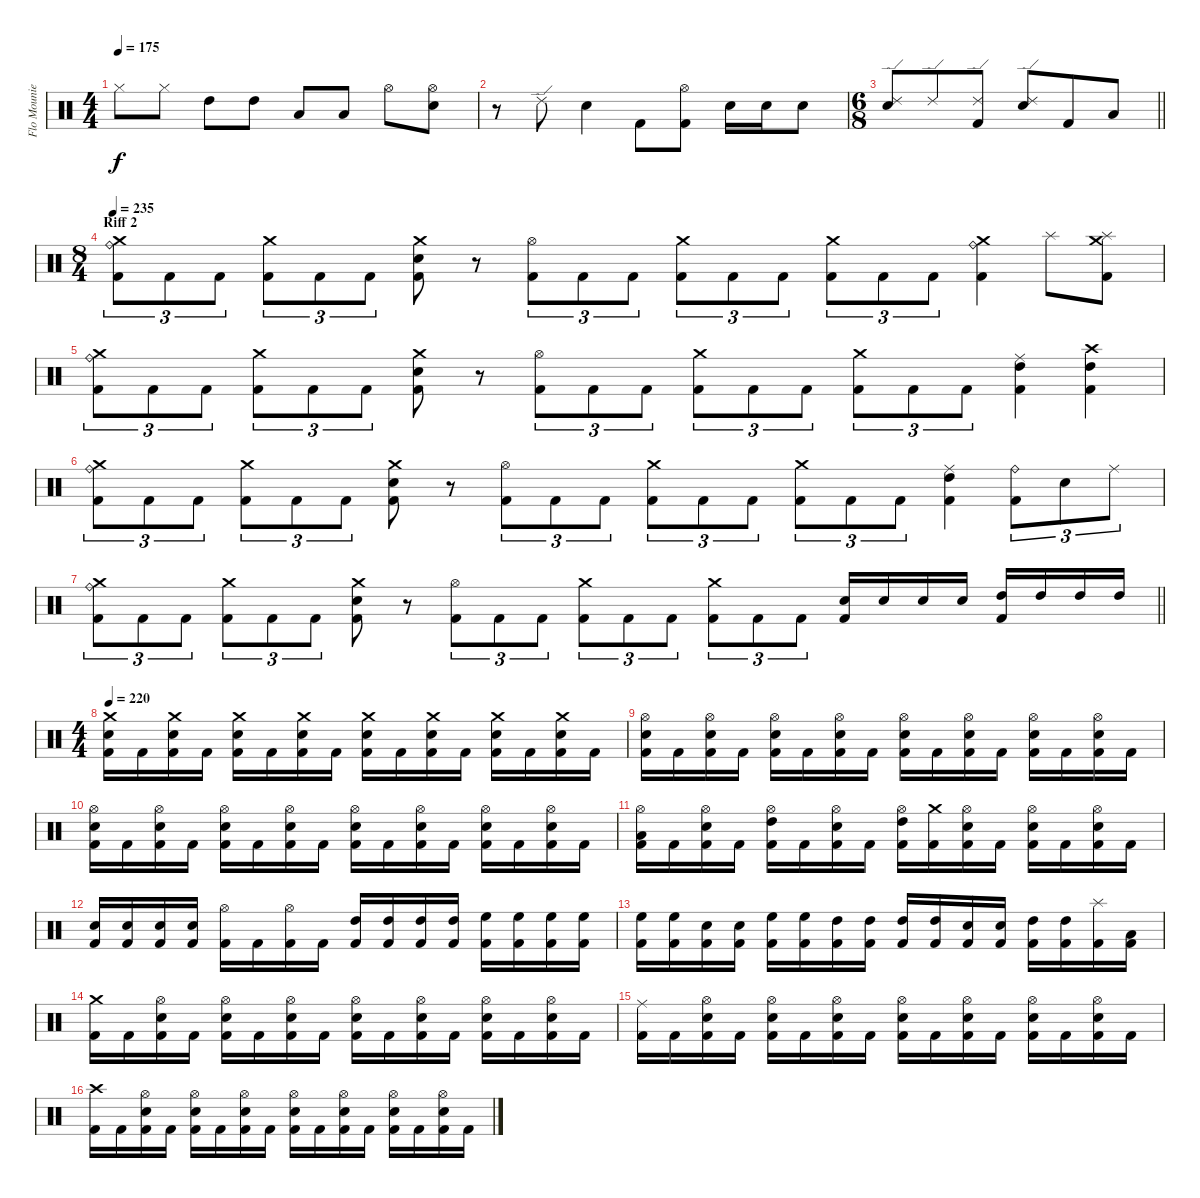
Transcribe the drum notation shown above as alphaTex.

\track ("Flo Mounier" "Flo Mounie") {instrument percussion}
\staff {score}
\articulation defaults
\ts (4 4)
\tempo 175
\clef neutral
\ks c "Hi-Hat (closed)".8{dy f} "Hi-Hat (closed)".8 "High Tom (hit)".8 "High Tom (hit)".8 "Low Tom (hit)".8 "Low Tom (hit)".8 "Hi-Hat (open)".8
("Hi-Hat (open)" "Snare (hit) 2").8 |
r.8 "Ride (edge) 2".8 "Snare (hit) 2".4 "Kick (hit) 2".8 ("Hi-Hat (open)" "Kick (hit) 2").8 "Snare (hit) 2".16 "Snare (hit) 2".16 "Snare (hit) 2".8 |
\ts (6 8)
\barLineRight lightlight
("Ride (edge) 2" "Snare (hit) 2").8 "Ride (edge) 2".8 ("Ride (edge) 2" "Kick (hit) 2").8 ("Ride (edge) 2" "Snare (hit) 2").8 "Kick (hit) 2".8 "Low Tom (hit)".8 |
\ts (8 4)
\section ("" "Riff 2")
\tempo 235
("Crash medium (hit)" "Ride (bell)" "Kick (hit) 2").8{tu (3 2)} "Kick (hit) 2".8{tu (3 2)} "Kick (hit) 2".8{tu (3 2)} ("Crash medium (hit)" "Kick (hit) 2").8{tu (3 2)} "Kick (hit) 2".8{tu (3 2)} "Kick (hit) 2".8{tu (3 2)} ("Crash medium (hit)" "Snare (hit) 2" "Kick (hit) 2").8 r.8 ("Hi-Hat (open)" "Kick (hit) 2").8{tu (3 2)} "Kick (hit) 2".8{tu (3 2)} "Kick (hit) 2".8{tu (3 2)} ("Crash medium (hit)" "Kick (hit) 2").8{tu (3 2)} "Kick (hit) 2".8{tu (3 2)} "Kick (hit) 2".8{tu (3 2)} ("Crash medium (hit)" "Kick (hit) 2").8{tu (3 2)} "Kick (hit) 2".8{tu (3 2)} "Kick (hit) 2".8{tu (3 2)} ("Crash medium (hit)" "Ride (bell)" "Kick (hit) 2").4 "Splash (hit)".8 ("Crash medium (hit)" "Splash (hit)" "Kick (hit) 2").8 |
("Crash medium (hit)" "Ride (bell)" "Kick (hit) 2").8{tu (3 2)} "Kick (hit) 2".8{tu (3 2)} "Kick (hit) 2".8{tu (3 2)} ("Crash medium (hit)" "Kick (hit) 2").8{tu (3 2)} "Kick (hit) 2".8{tu (3 2)} "Kick (hit) 2".8{tu (3 2)} ("Crash medium (hit)" "Snare (hit) 2" "Kick (hit) 2").8 r.8 ("Hi-Hat (open)" "Kick (hit) 2").8{tu (3 2)} "Kick (hit) 2".8{tu (3 2)} "Kick (hit) 2".8{tu (3 2)} ("Crash medium (hit)" "Kick (hit) 2").8{tu (3 2)} "Kick (hit) 2".8{tu (3 2)} "Kick (hit) 2".8{tu (3 2)} ("Crash medium (hit)" "Kick (hit) 2").8{tu (3 2)} "Kick (hit) 2".8{tu (3 2)} "Kick (hit) 2".8{tu (3 2)} ("Ride (middle)" "High Tom (hit)" "Kick (hit) 2").4 ("Crash high (hit)" "High Tom (hit)" "Kick (hit) 2").4 |
("Crash medium (hit)" "Ride (bell)" "Kick (hit) 2").8{tu (3 2)} "Kick (hit) 2".8{tu (3 2)} "Kick (hit) 2".8{tu (3 2)} ("Crash medium (hit)" "Kick (hit) 2").8{tu (3 2)} "Kick (hit) 2".8{tu (3 2)} "Kick (hit) 2".8{tu (3 2)} ("Crash medium (hit)" "Snare (hit) 2" "Kick (hit) 2").8 r.8 ("Hi-Hat (open)" "Kick (hit) 2").8{tu (3 2)} "Kick (hit) 2".8{tu (3 2)} "Kick (hit) 2".8{tu (3 2)} ("Crash medium (hit)" "Kick (hit) 2").8{tu (3 2)} "Kick (hit) 2".8{tu (3 2)} "Kick (hit) 2".8{tu (3 2)} ("Crash medium (hit)" "Kick (hit) 2").8{tu (3 2)} "Kick (hit) 2".8{tu (3 2)} "Kick (hit) 2".8{tu (3 2)} ("Ride (middle)" "High Tom (hit)" "Kick (hit) 2").4 ("Ride (bell)" "Kick (hit) 2").8{tu (3 2)} "Snare (hit) 2".8{tu (3 2)} "Ride (middle)".8{tu (3 2)} |
\barLineRight lightlight
("Crash medium (hit)" "Ride (bell)" "Kick (hit) 2").8{tu (3 2)} "Kick (hit) 2".8{tu (3 2)} "Kick (hit) 2".8{tu (3 2)} ("Crash medium (hit)" "Kick (hit) 2").8{tu (3 2)} "Kick (hit) 2".8{tu (3 2)} "Kick (hit) 2".8{tu (3 2)} ("Crash medium (hit)" "Snare (hit) 2" "Kick (hit) 2").8 r.8 ("Hi-Hat (open)" "Kick (hit) 2").8{tu (3 2)} "Kick (hit) 2".8{tu (3 2)} "Kick (hit) 2".8{tu (3 2)} ("Crash medium (hit)" "Kick (hit) 2").8{tu (3 2)} "Kick (hit) 2".8{tu (3 2)} "Kick (hit) 2".8{tu (3 2)} ("Crash medium (hit)" "Kick (hit) 2").8{tu (3 2)} "Kick (hit) 2".8{tu (3 2)} "Kick (hit) 2".8{tu (3 2)} ("Snare (hit) 2" "Kick (hit) 2").16 "Snare (hit) 2".16 "Snare (hit) 2".16 "Snare (hit) 2".16 ("High Tom (hit)" "Kick (hit) 2").16 "High Tom (hit)".16 "High Tom (hit)".16 "High Tom (hit)".16 |
\ts (4 4)
\tempo 220
("Crash medium (hit)" "Snare (hit) 2" "Kick (hit) 2").16 "Kick (hit) 2".16 ("Crash medium (hit)" "Snare (hit) 2" "Kick (hit) 2").16 "Kick (hit) 2".16 ("Crash medium (hit)" "Snare (hit) 2" "Kick (hit) 2").16 "Kick (hit) 2".16 ("Crash medium (hit)" "Snare (hit) 2" "Kick (hit) 2").16 "Kick (hit) 2".16 ("Crash medium (hit)" "Snare (hit) 2" "Kick (hit) 2").16 "Kick (hit) 2".16 ("Crash medium (hit)" "Snare (hit) 2" "Kick (hit) 2").16 "Kick (hit) 2".16 ("Crash medium (hit)" "Snare (hit) 2" "Kick (hit) 2").16 "Kick (hit) 2".16 ("Crash medium (hit)" "Snare (hit) 2" "Kick (hit) 2").16 "Kick (hit) 2".16 |
("Hi-Hat (open)" "Snare (hit) 2" "Kick (hit) 2").16 "Kick (hit) 2".16 ("Hi-Hat (open)" "Snare (hit) 2" "Kick (hit) 2").16 "Kick (hit) 2".16 ("Hi-Hat (open)" "Snare (hit) 2" "Kick (hit) 2").16 "Kick (hit) 2".16 ("Hi-Hat (open)" "Snare (hit) 2" "Kick (hit) 2").16 "Kick (hit) 2".16 ("Hi-Hat (open)" "Snare (hit) 2" "Kick (hit) 2").16 "Kick (hit) 2".16 ("Hi-Hat (open)" "Snare (hit) 2" "Kick (hit) 2").16 "Kick (hit) 2".16 ("Hi-Hat (open)" "Snare (hit) 2" "Kick (hit) 2").16 "Kick (hit) 2".16 ("Hi-Hat (open)" "Snare (hit) 2" "Kick (hit) 2").16 "Kick (hit) 2".16 |
("Hi-Hat (open)" "Snare (hit) 2" "Kick (hit) 2").16 "Kick (hit) 2".16 ("Hi-Hat (open)" "Snare (hit) 2" "Kick (hit) 2").16 "Kick (hit) 2".16 ("Hi-Hat (open)" "Snare (hit) 2" "Kick (hit) 2").16 "Kick (hit) 2".16 ("Hi-Hat (open)" "Snare (hit) 2" "Kick (hit) 2").16 "Kick (hit) 2".16 ("Hi-Hat (open)" "Snare (hit) 2" "Kick (hit) 2").16 "Kick (hit) 2".16 ("Hi-Hat (open)" "Snare (hit) 2" "Kick (hit) 2").16 "Kick (hit) 2".16 ("Hi-Hat (open)" "Snare (hit) 2" "Kick (hit) 2").16 "Kick (hit) 2".16 ("Hi-Hat (open)" "Snare (hit) 2" "Kick (hit) 2").16 "Kick (hit) 2".16 |
("Hi-Hat (open)" "Low Tom (hit)" "Kick (hit) 2").16 "Kick (hit) 2".16 ("Hi-Hat (open)" "Snare (hit) 2" "Kick (hit) 2").16 "Kick (hit) 2".16 ("Hi-Hat (open)" "High Tom (hit)" "Kick (hit) 2").16 "Kick (hit) 2".16 ("Hi-Hat (open)" "Snare (hit) 2" "Kick (hit) 2").16 "Kick (hit) 2".16 ("Hi-Hat (open)" "High Tom (hit)" "Kick (hit) 2").16 ("Crash medium (hit)" "Kick (hit) 2").16 ("Hi-Hat (open)" "Snare (hit) 2" "Kick (hit) 2").16 "Kick (hit) 2".16 ("Hi-Hat (open)" "Snare (hit) 2" "Kick (hit) 2").16 "Kick (hit) 2".16 ("Hi-Hat (open)" "Snare (hit) 2" "Kick (hit) 2").16 "Kick (hit) 2".16 |
("Snare (hit) 2" "Kick (hit) 2").16 ("Snare (hit) 2" "Kick (hit) 2").16 ("Snare (hit) 2" "Kick (hit) 2").16 ("Snare (hit) 2" "Kick (hit) 2").16 ("Hi-Hat (open)" "Kick (hit) 2").16 "Kick (hit) 2".16 ("Hi-Hat (open)" "Kick (hit) 2").16 "Kick (hit) 2".16 ("High Tom (hit)" "Kick (hit) 2").16 ("High Tom (hit)" "Kick (hit) 2").16 ("High Tom (hit)" "Kick (hit) 2").16 ("High Tom (hit)" "Kick (hit) 2").16 ("High Floor Tom (hit)" "Kick (hit) 2").16 ("High Floor Tom (hit)" "Kick (hit) 2").16 ("High Floor Tom (hit)" "Kick (hit) 2").16 ("High Floor Tom (hit)" "Kick (hit) 2").16 |
("High Floor Tom (hit)" "Kick (hit) 2").16 ("High Floor Tom (hit)" "Kick (hit) 2").16 ("Snare (hit) 2" "Kick (hit) 2").16 ("Snare (hit) 2" "Kick (hit) 2").16 ("High Floor Tom (hit)" "Kick (hit) 2").16 ("High Floor Tom (hit)" "Kick (hit) 2").16 ("High Tom (hit)" "Kick (hit) 2").16 ("High Tom (hit)" "Kick (hit) 2").16 ("High Tom (hit)" "Kick (hit) 2").16 ("High Tom (hit)" "Kick (hit) 2").16 ("Snare (hit) 2" "Kick (hit) 2").16 ("Snare (hit) 2" "Kick (hit) 2").16 ("High Tom (hit)" "Kick (hit) 2").16 ("High Tom (hit)" "Kick (hit) 2").16 ("Splash (hit)" "Kick (hit) 2").16 ("Low Tom (hit)" "Kick (hit) 2").16 |
("Crash medium (hit)" "Kick (hit) 2").16 "Kick (hit) 2".16 ("Hi-Hat (open)" "Snare (hit) 2" "Kick (hit) 2").16 "Kick (hit) 2".16 ("Hi-Hat (open)" "Snare (hit) 2" "Kick (hit) 2").16 "Kick (hit) 2".16 ("Hi-Hat (open)" "Snare (hit) 2" "Kick (hit) 2").16 "Kick (hit) 2".16 ("Hi-Hat (open)" "Snare (hit) 2" "Kick (hit) 2").16 "Kick (hit) 2".16 ("Hi-Hat (open)" "Snare (hit) 2" "Kick (hit) 2").16 "Kick (hit) 2".16 ("Hi-Hat (open)" "Snare (hit) 2" "Kick (hit) 2").16 "Kick (hit) 2".16 ("Hi-Hat (open)" "Snare (hit) 2" "Kick (hit) 2").16 "Kick (hit) 2".16 |
("Ride (middle)" "Kick (hit) 2").16 "Kick (hit) 2".16 ("Hi-Hat (open)" "Snare (hit) 2" "Kick (hit) 2").16 "Kick (hit) 2".16 ("Hi-Hat (open)" "Snare (hit) 2" "Kick (hit) 2").16 "Kick (hit) 2".16 ("Hi-Hat (open)" "Snare (hit) 2" "Kick (hit) 2").16 "Kick (hit) 2".16 ("Hi-Hat (open)" "Snare (hit) 2" "Kick (hit) 2").16 "Kick (hit) 2".16 ("Hi-Hat (open)" "Snare (hit) 2" "Kick (hit) 2").16 "Kick (hit) 2".16 ("Hi-Hat (open)" "Snare (hit) 2" "Kick (hit) 2").16 "Kick (hit) 2".16 ("Hi-Hat (open)" "Snare (hit) 2" "Kick (hit) 2").16 "Kick (hit) 2".16 |
("Crash high (hit)" "Kick (hit) 2").16 "Kick (hit) 2".16 ("Hi-Hat (open)" "Snare (hit) 2" "Kick (hit) 2").16 "Kick (hit) 2".16 ("Hi-Hat (open)" "Snare (hit) 2" "Kick (hit) 2").16 "Kick (hit) 2".16 ("Hi-Hat (open)" "Snare (hit) 2" "Kick (hit) 2").16 "Kick (hit) 2".16 ("Hi-Hat (open)" "Snare (hit) 2" "Kick (hit) 2").16 "Kick (hit) 2".16 ("Hi-Hat (open)" "Snare (hit) 2" "Kick (hit) 2").16 "Kick (hit) 2".16 ("Hi-Hat (open)" "Snare (hit) 2" "Kick (hit) 2").16 "Kick (hit) 2".16 ("Hi-Hat (open)" "Snare (hit) 2" "Kick (hit) 2").16 "Kick (hit) 2".16
